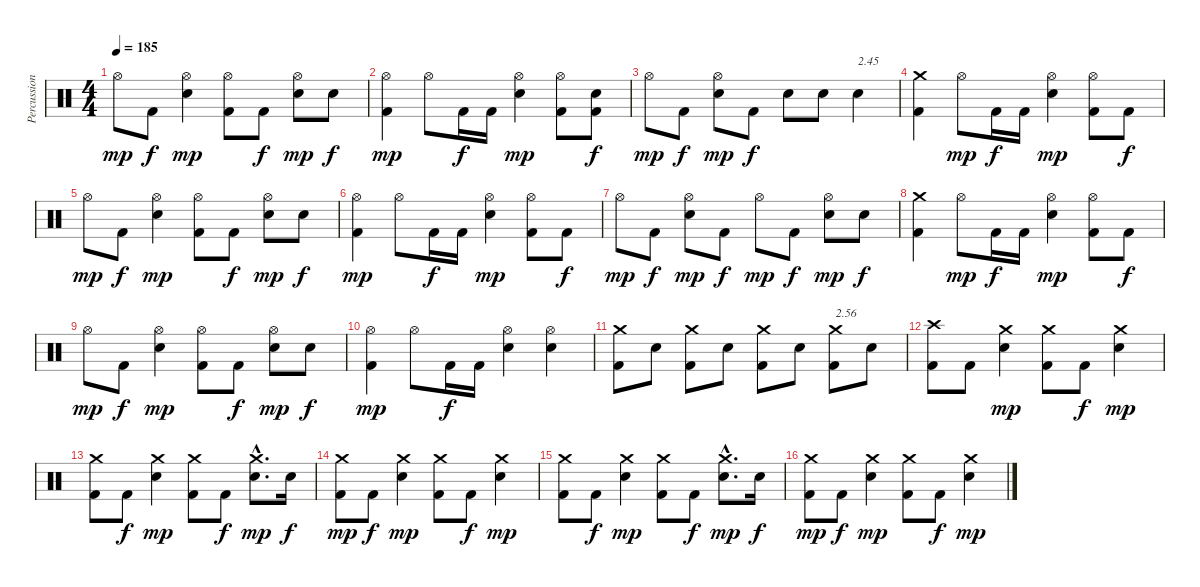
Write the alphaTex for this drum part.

\track ("Percussions" "Percussion") {instrument percussion}
\staff {score}
\articulation defaults
\ts (4 4)
\tempo 185
\clef neutral
\ks c "Hi-Hat (open)".8{dy mp} "Kick (hit) 2".8{dy f}
("Electric Snare (hit)" "Hi-Hat (open)").4{dy mp} ("Kick (hit) 2" "Hi-Hat (open)").8 "Kick (hit) 2".8{dy f} ("Electric Snare (hit)" "Hi-Hat (open)").8{dy mp} "Electric Snare (hit)".8{dy f} |
("Kick (hit) 2" "Hi-Hat (open)").4{dy mp} "Hi-Hat (open)".8 "Kick (hit) 2".16{dy f} "Kick (hit) 2".16 ("Electric Snare (hit)" "Hi-Hat (open)").4{dy mp} ("Kick (hit) 2" "Hi-Hat (open)").8 ("Kick (hit) 2" "Electric Snare (hit)").8{dy f} |
"Hi-Hat (open)".8{dy mp} "Kick (hit) 2".8{dy f} ("Electric Snare (hit)" "Hi-Hat (open)").8{dy mp} "Kick (hit) 2".8{dy f} "Electric Snare (hit)".8 "Electric Snare (hit)".8 "Electric Snare (hit)".4{txt "2.45"} |
("Kick (hit) 2" "Crash medium (hit)").4 "Hi-Hat (open)".8{dy mp} "Kick (hit) 2".16{dy f} "Kick (hit) 2".16 ("Electric Snare (hit)" "Hi-Hat (open)").4{dy mp} ("Kick (hit) 2" "Hi-Hat (open)").8 "Kick (hit) 2".8{dy f} |
"Hi-Hat (open)".8{dy mp} "Kick (hit) 2".8{dy f} ("Electric Snare (hit)" "Hi-Hat (open)").4{dy mp} ("Kick (hit) 2" "Hi-Hat (open)").8 "Kick (hit) 2".8{dy f} ("Electric Snare (hit)" "Hi-Hat (open)").8{dy mp} "Electric Snare (hit)".8{dy f} |
("Kick (hit) 2" "Hi-Hat (open)").4{dy mp} "Hi-Hat (open)".8 "Kick (hit) 2".16{dy f} "Kick (hit) 2".16 ("Electric Snare (hit)" "Hi-Hat (open)").4{dy mp} ("Kick (hit) 2" "Hi-Hat (open)").8 "Kick (hit) 2".8{dy f} |
"Hi-Hat (open)".8{dy mp} "Kick (hit) 2".8{dy f} ("Electric Snare (hit)" "Hi-Hat (open)").8{dy mp} "Kick (hit) 2".8{dy f} "Hi-Hat (open)".8{dy mp} "Kick (hit) 2".8{dy f} ("Electric Snare (hit)" "Hi-Hat (open)").8{dy mp} "Electric Snare (hit)".8{dy f} |
("Kick (hit) 2" "Crash medium (hit)").4 "Hi-Hat (open)".8{dy mp} "Kick (hit) 2".16{dy f} "Kick (hit) 2".16 ("Electric Snare (hit)" "Hi-Hat (open)").4{dy mp} ("Kick (hit) 2" "Hi-Hat (open)").8 "Kick (hit) 2".8{dy f} |
"Hi-Hat (open)".8{dy mp} "Kick (hit) 2".8{dy f} ("Electric Snare (hit)" "Hi-Hat (open)").4{dy mp} ("Kick (hit) 2" "Hi-Hat (open)").8 "Kick (hit) 2".8{dy f} ("Electric Snare (hit)" "Hi-Hat (open)").8{dy mp} "Electric Snare (hit)".8{dy f} |
("Kick (hit) 2" "Hi-Hat (open)").4{dy mp} "Hi-Hat (open)".8 "Kick (hit) 2".16{dy f} "Kick (hit) 2".16 ("Electric Snare (hit)" "Hi-Hat (open)").4 ("Electric Snare (hit)" "Hi-Hat (open)").4 |
("Kick (hit) 2" "Crash medium (hit)").8 "Electric Snare (hit)".8 ("Kick (hit) 2" "Crash medium (hit)").8 "Electric Snare (hit)".8 ("Kick (hit) 2" "Crash medium (hit)").8 "Electric Snare (hit)".8 ("Kick (hit) 2" "Crash medium (hit)").8{txt "2.56"} "Electric Snare (hit)".8 |
("Kick (hit) 2" "Crash high (hit)").8 "Kick (hit) 2".8 ("Electric Snare (hit)" "Crash medium (hit)").4{dy mp} ("Kick (hit) 2" "Crash medium (hit)").8 "Kick (hit) 2".8{dy f} ("Electric Snare (hit)" "Crash medium (hit)").4{dy mp} |
("Kick (hit) 2" "Crash medium (hit)").8 "Kick (hit) 2".8{dy f} ("Electric Snare (hit)" "Crash medium (hit)").4{dy mp} ("Kick (hit) 2" "Crash medium (hit)").8 "Kick (hit) 2".8{dy f} ("Electric Snare (hit)"{hac} "Crash medium (hit)"{hac}).8{d dy mp} "Electric Snare (hit)".16{dy f} |
("Kick (hit) 2" "Crash medium (hit)").8{dy mp} "Kick (hit) 2".8{dy f} ("Electric Snare (hit)" "Crash medium (hit)").4{dy mp} ("Kick (hit) 2" "Crash medium (hit)").8 "Kick (hit) 2".8{dy f} ("Electric Snare (hit)" "Crash medium (hit)").4{dy mp} |
("Kick (hit) 2" "Crash medium (hit)").8 "Kick (hit) 2".8{dy f} ("Electric Snare (hit)" "Crash medium (hit)").4{dy mp} ("Kick (hit) 2" "Crash medium (hit)").8 "Kick (hit) 2".8{dy f} ("Electric Snare (hit)"{hac} "Crash medium (hit)"{hac}).8{d dy mp} "Electric Snare (hit)".16{dy f} |
("Kick (hit) 2" "Crash medium (hit)").8{dy mp} "Kick (hit) 2".8{dy f} ("Electric Snare (hit)" "Crash medium (hit)").4{dy mp} ("Kick (hit) 2" "Crash medium (hit)").8 "Kick (hit) 2".8{dy f} ("Electric Snare (hit)" "Crash medium (hit)").4{dy mp}
